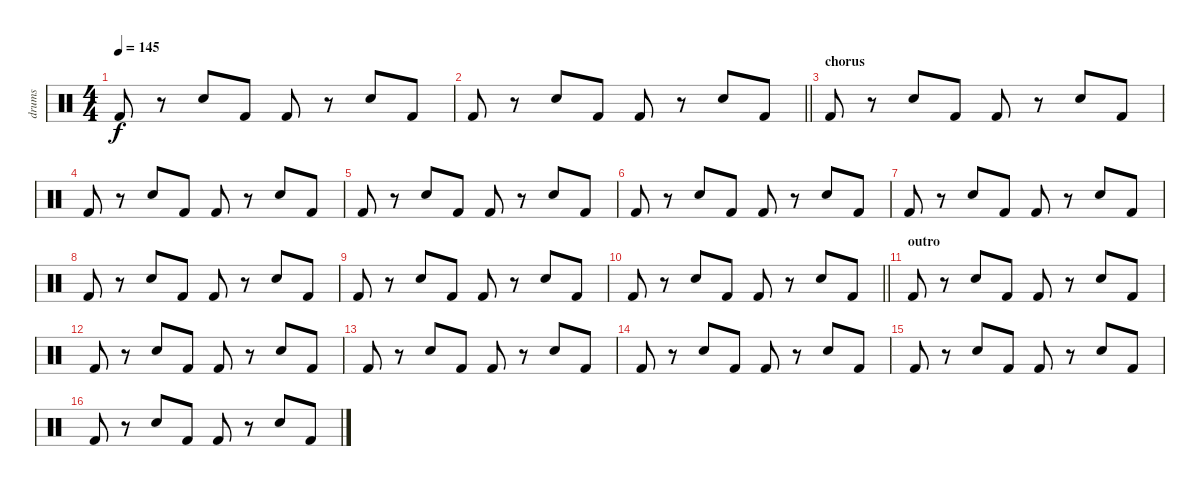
\track ("drums" "drums") {instrument percussion}
\staff {score}
\articulation defaults
\ts (4 4)
\tempo 145
\clef neutral
\ks c "Kick (hit) 2".8{dy f}
r.8 "Snare (hit) 2".8 "Kick (hit) 2".8 "Kick (hit) 2".8 r.8 "Snare (hit) 2".8 "Kick (hit) 2".8 |
\barLineRight lightlight "Kick (hit) 2".8
r.8 "Snare (hit) 2".8 "Kick (hit) 2".8 "Kick (hit) 2".8 r.8 "Snare (hit) 2".8 "Kick (hit) 2".8 |
\section ("" "chorus")
"Kick (hit) 2".8 r.8 "Snare (hit) 2".8 "Kick (hit) 2".8 "Kick (hit) 2".8 r.8 "Snare (hit) 2".8 "Kick (hit) 2".8 |
"Kick (hit) 2".8 r.8 "Snare (hit) 2".8 "Kick (hit) 2".8 "Kick (hit) 2".8 r.8 "Snare (hit) 2".8 "Kick (hit) 2".8 |
"Kick (hit) 2".8 r.8 "Snare (hit) 2".8 "Kick (hit) 2".8 "Kick (hit) 2".8 r.8 "Snare (hit) 2".8 "Kick (hit) 2".8 |
"Kick (hit) 2".8 r.8 "Snare (hit) 2".8 "Kick (hit) 2".8 "Kick (hit) 2".8 r.8 "Snare (hit) 2".8 "Kick (hit) 2".8 |
"Kick (hit) 2".8 r.8 "Snare (hit) 2".8 "Kick (hit) 2".8 "Kick (hit) 2".8 r.8 "Snare (hit) 2".8 "Kick (hit) 2".8 |
"Kick (hit) 2".8 r.8 "Snare (hit) 2".8 "Kick (hit) 2".8 "Kick (hit) 2".8 r.8 "Snare (hit) 2".8 "Kick (hit) 2".8 |
"Kick (hit) 2".8 r.8 "Snare (hit) 2".8 "Kick (hit) 2".8 "Kick (hit) 2".8 r.8 "Snare (hit) 2".8 "Kick (hit) 2".8 |
\barLineRight lightlight "Kick (hit) 2".8
r.8 "Snare (hit) 2".8 "Kick (hit) 2".8 "Kick (hit) 2".8 r.8 "Snare (hit) 2".8 "Kick (hit) 2".8 |
\section ("" "outro")
"Kick (hit) 2".8 r.8 "Snare (hit) 2".8 "Kick (hit) 2".8 "Kick (hit) 2".8 r.8 "Snare (hit) 2".8 "Kick (hit) 2".8 |
"Kick (hit) 2".8 r.8 "Snare (hit) 2".8 "Kick (hit) 2".8 "Kick (hit) 2".8 r.8 "Snare (hit) 2".8 "Kick (hit) 2".8 |
"Kick (hit) 2".8 r.8 "Snare (hit) 2".8 "Kick (hit) 2".8 "Kick (hit) 2".8 r.8 "Snare (hit) 2".8 "Kick (hit) 2".8 |
"Kick (hit) 2".8 r.8 "Snare (hit) 2".8 "Kick (hit) 2".8 "Kick (hit) 2".8 r.8 "Snare (hit) 2".8 "Kick (hit) 2".8 |
"Kick (hit) 2".8 r.8 "Snare (hit) 2".8 "Kick (hit) 2".8 "Kick (hit) 2".8 r.8 "Snare (hit) 2".8 "Kick (hit) 2".8 |
"Kick (hit) 2".8 r.8 "Snare (hit) 2".8 "Kick (hit) 2".8 "Kick (hit) 2".8 r.8 "Snare (hit) 2".8 "Kick (hit) 2".8
